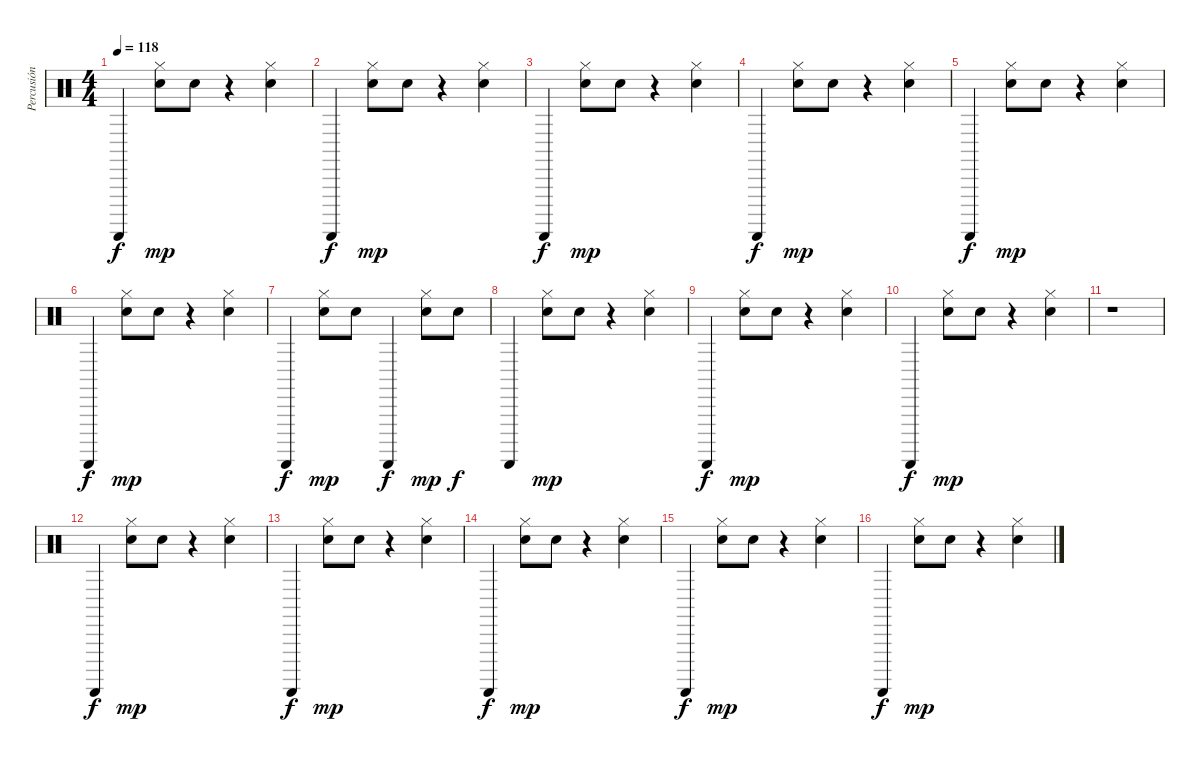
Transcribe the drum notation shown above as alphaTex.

\track ("Percusión" "Percusión") {instrument percussion}
\staff {score}
\articulation defaults
\ts (4 4)
\tempo 118
\clef neutral
\ks c "Guiro (scrap-return)".4{dy f}
("Snare (hit) 2" "Hi-Hat (closed)").8{dy mp} "Snare (hit) 2".8 r.4 ("Snare (hit) 2" "Hi-Hat (closed)").4 |
"Guiro (scrap-return)".4{dy f} ("Snare (hit) 2" "Hi-Hat (closed)").8{dy mp} "Snare (hit) 2".8 r.4 ("Snare (hit) 2" "Hi-Hat (closed)").4 |
"Guiro (scrap-return)".4{dy f} ("Snare (hit) 2" "Hi-Hat (closed)").8{dy mp} "Snare (hit) 2".8 r.4 ("Snare (hit) 2" "Hi-Hat (closed)").4 |
"Guiro (scrap-return)".4{dy f} ("Snare (hit) 2" "Hi-Hat (closed)").8{dy mp} "Snare (hit) 2".8 r.4 ("Snare (hit) 2" "Hi-Hat (closed)").4 |
"Guiro (scrap-return)".4{dy f} ("Snare (hit) 2" "Hi-Hat (closed)").8{dy mp} "Snare (hit) 2".8 r.4 ("Snare (hit) 2" "Hi-Hat (closed)").4 |
"Guiro (scrap-return)".4{dy f} ("Snare (hit) 2" "Hi-Hat (closed)").8{dy mp} "Snare (hit) 2".8 r.4 ("Snare (hit) 2" "Hi-Hat (closed)").4 |
"Guiro (scrap-return)".4{dy f} ("Snare (hit) 2" "Hi-Hat (closed)").8{dy mp} "Snare (hit) 2".8 "Guiro (scrap-return)".4{dy f} ("Snare (hit) 2" "Hi-Hat (closed)").8{dy mp} "Snare (hit) 2".8{dy f} |
"Guiro (scrap-return)".4 ("Snare (hit) 2" "Hi-Hat (closed)").8{dy mp} "Snare (hit) 2".8 r.4 ("Snare (hit) 2" "Hi-Hat (closed)").4 |
"Guiro (scrap-return)".4{dy f} ("Snare (hit) 2" "Hi-Hat (closed)").8{dy mp} "Snare (hit) 2".8 r.4 ("Snare (hit) 2" "Hi-Hat (closed)").4 |
"Guiro (scrap-return)".4{dy f} ("Snare (hit) 2" "Hi-Hat (closed)").8{dy mp} "Snare (hit) 2".8 r.4 ("Snare (hit) 2" "Hi-Hat (closed)").4 |
r.1 |
"Guiro (scrap-return)".4{dy f} ("Snare (hit) 2" "Hi-Hat (closed)").8{dy mp} "Snare (hit) 2".8 r.4 ("Snare (hit) 2" "Hi-Hat (closed)").4 |
"Guiro (scrap-return)".4{dy f} ("Snare (hit) 2" "Hi-Hat (closed)").8{dy mp} "Snare (hit) 2".8 r.4 ("Snare (hit) 2" "Hi-Hat (closed)").4 |
"Guiro (scrap-return)".4{dy f} ("Snare (hit) 2" "Hi-Hat (closed)").8{dy mp} "Snare (hit) 2".8 r.4 ("Snare (hit) 2" "Hi-Hat (closed)").4 |
"Guiro (scrap-return)".4{dy f} ("Snare (hit) 2" "Hi-Hat (closed)").8{dy mp} "Snare (hit) 2".8 r.4 ("Snare (hit) 2" "Hi-Hat (closed)").4 |
"Guiro (scrap-return)".4{dy f} ("Snare (hit) 2" "Hi-Hat (closed)").8{dy mp} "Snare (hit) 2".8 r.4 ("Snare (hit) 2" "Hi-Hat (closed)").4
